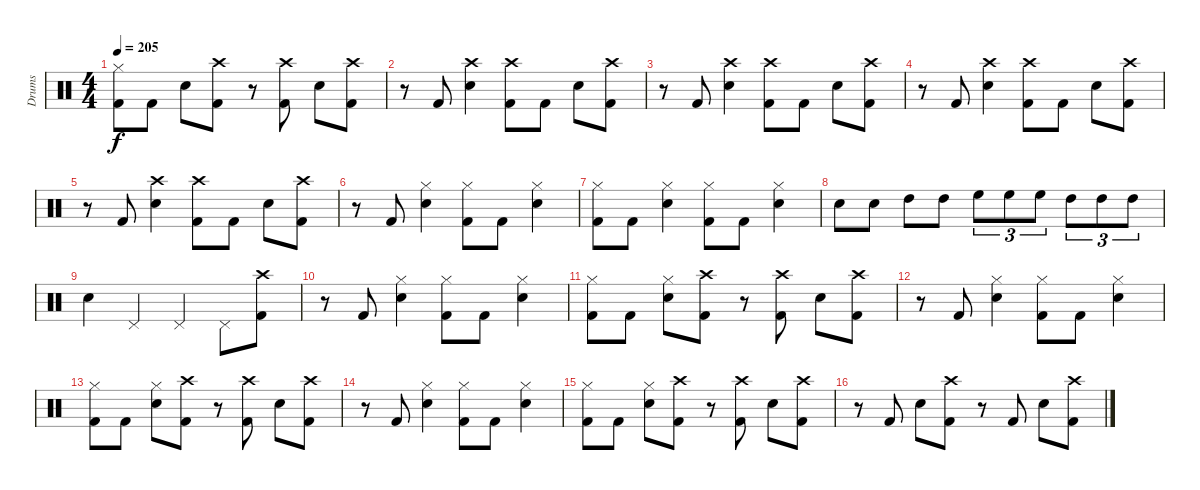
\track ("Drums" "Drums") {instrument percussion}
\staff {score}
\articulation defaults
\ts (4 4)
\tempo 205
\clef neutral
\ks c
("Kick (hit) 2" "Hi-Hat (closed)").8{dy f} "Kick (hit) 2".8 "Snare (hit) 2".8 ("Kick (hit) 2" "Crash high (hit)").8 r.8 ("Kick (hit) 2" "Crash high (hit)").8 "Snare (hit) 2".8 ("Kick (hit) 2" "Crash high (hit)").8 |
r.8 "Kick (hit) 2".8 ("Snare (hit) 2" "Crash high (hit)").4 ("Crash high (hit)" "Kick (hit) 2").8 "Kick (hit) 2".8 "Snare (hit) 2".8 ("Kick (hit) 2" "Crash high (hit)").8 |
r.8 "Kick (hit) 2".8 ("Snare (hit) 2" "Crash high (hit)").4 ("Crash high (hit)" "Kick (hit) 2").8 "Kick (hit) 2".8 "Snare (hit) 2".8 ("Kick (hit) 2" "Crash high (hit)").8 |
r.8 "Kick (hit) 2".8 ("Snare (hit) 2" "Crash high (hit)").4 ("Crash high (hit)" "Kick (hit) 2").8 "Kick (hit) 2".8 "Snare (hit) 2".8 ("Kick (hit) 2" "Crash high (hit)").8 |
r.8 "Kick (hit) 2".8 ("Snare (hit) 2" "Crash high (hit)").4 ("Crash high (hit)" "Kick (hit) 2").8 "Kick (hit) 2".8 "Snare (hit) 2".8 ("Kick (hit) 2" "Crash high (hit)").8 |
r.8 "Kick (hit) 2".8 ("Snare (hit) 2" "Hi-Hat (closed)").4 ("Kick (hit) 2" "Hi-Hat (closed)").8 "Kick (hit) 2".8 ("Hi-Hat (closed)" "Snare (hit) 2").4 |
("Hi-Hat (closed)" "Kick (hit) 2").8 "Kick (hit) 2".8 ("Hi-Hat (closed)" "Snare (hit) 2").4 ("Hi-Hat (closed)" "Kick (hit) 2").8 "Kick (hit) 2".8 ("Hi-Hat (closed)" "Snare (hit) 2").4 |
"Snare (hit) 2".8 "Snare (hit) 2".8 "High Tom (hit)".8 "High Tom (hit)".8 "High Floor Tom (hit)".8{tu (3 2)} "High Floor Tom (hit)".8{tu (3 2)} "High Floor Tom (hit)".8{tu (3 2)} "High Tom (hit)".8{tu (3 2)} "High Tom (hit)".8{tu (3 2)} "High Tom (hit)".8{tu (3 2)} |
"Snare (hit) 2".4 "Pedal Hi-Hat (hit)".4 "Pedal Hi-Hat (hit)".4 "Pedal Hi-Hat (hit)".8 ("Kick (hit) 2" "Crash high (hit)").8 |
r.8 "Kick (hit) 2".8 ("Hi-Hat (closed)" "Snare (hit) 2").4 ("Kick (hit) 2" "Hi-Hat (closed)").8 "Kick (hit) 2".8 ("Hi-Hat (closed)" "Snare (hit) 2").4 |
("Hi-Hat (closed)" "Kick (hit) 2").8 "Kick (hit) 2".8 ("Snare (hit) 2" "Hi-Hat (closed)").8 ("Kick (hit) 2" "Crash high (hit)").8 r.8 ("Crash high (hit)" "Kick (hit) 2").8 "Snare (hit) 2".8 ("Crash high (hit)" "Kick (hit) 2").8 |
r.8 "Kick (hit) 2".8 ("Hi-Hat (closed)" "Snare (hit) 2").4 ("Kick (hit) 2" "Hi-Hat (closed)").8 "Kick (hit) 2".8 ("Hi-Hat (closed)" "Snare (hit) 2").4 |
("Hi-Hat (closed)" "Kick (hit) 2").8 "Kick (hit) 2".8 ("Snare (hit) 2" "Hi-Hat (closed)").8 ("Kick (hit) 2" "Crash high (hit)").8 r.8 ("Crash high (hit)" "Kick (hit) 2").8 "Snare (hit) 2".8 ("Crash high (hit)" "Kick (hit) 2").8 |
r.8 "Kick (hit) 2".8 ("Hi-Hat (closed)" "Snare (hit) 2").4 ("Kick (hit) 2" "Hi-Hat (closed)").8 "Kick (hit) 2".8 ("Hi-Hat (closed)" "Snare (hit) 2").4 |
("Hi-Hat (closed)" "Kick (hit) 2").8 "Kick (hit) 2".8 ("Snare (hit) 2" "Hi-Hat (closed)").8 ("Kick (hit) 2" "Crash high (hit)").8 r.8 ("Crash high (hit)" "Kick (hit) 2").8 "Snare (hit) 2".8 ("Crash high (hit)" "Kick (hit) 2").8 |
r.8 "Kick (hit) 2".8 "Snare (hit) 2".8 ("Kick (hit) 2" "Crash high (hit)").8 r.8 "Kick (hit) 2".8 "Snare (hit) 2".8 ("Kick (hit) 2" "Crash high (hit)").8
